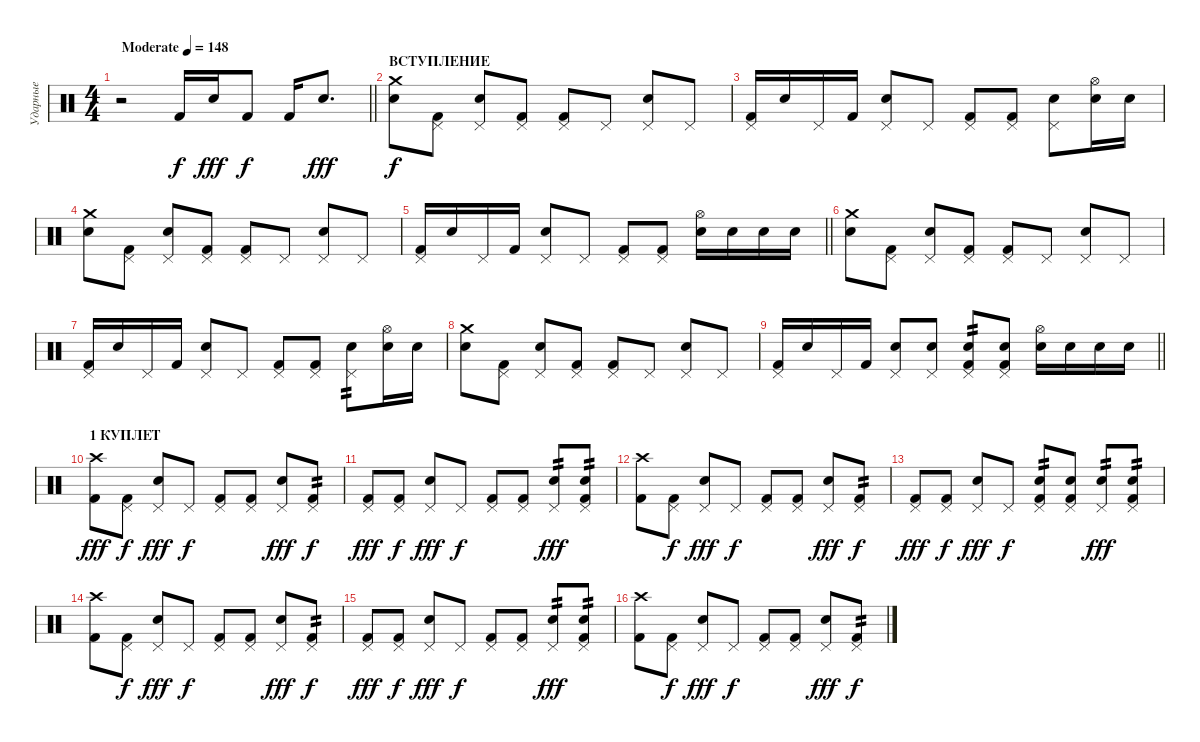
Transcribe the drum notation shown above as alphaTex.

\track ("Ударные" "Ударные") {instrument percussion}
\staff
\articulation defaults
\ts (4 4)
\tempo (148 "Moderate")
\clef neutral
\barLineRight lightlight
\ks c
r.2{dy f} "Kick (hit) 2".16 "Electric Snare (hit)".16{dy fff} "Kick (hit) 2".8{dy f} "Kick (hit) 2".16 "Electric Snare (hit)".8{d dy fff} |
\section ("" "ВСТУПЛЕНИЕ")
("Crash medium (hit)" "Electric Snare (hit)").8{dy f} ("Pedal Hi-Hat (hit)" "Kick (hit) 2").8 ("Pedal Hi-Hat (hit)" "Electric Snare (hit)").8 ("Pedal Hi-Hat (hit)" "Kick (hit) 2").8 ("Pedal Hi-Hat (hit)" "Kick (hit) 2").8 "Pedal Hi-Hat (hit)".8 ("Pedal Hi-Hat (hit)" "Electric Snare (hit)").8 "Pedal Hi-Hat (hit)".8 |
("Pedal Hi-Hat (hit)" "Kick (hit) 2").16 "Electric Snare (hit)".16 "Pedal Hi-Hat (hit)".16 "Kick (hit) 2".16 ("Pedal Hi-Hat (hit)" "Electric Snare (hit)").8 "Pedal Hi-Hat (hit)".8 ("Pedal Hi-Hat (hit)" "Kick (hit) 2").8 ("Pedal Hi-Hat (hit)" "Kick (hit) 2").8 ("Pedal Hi-Hat (hit)" "Electric Snare (hit)").8 ("Hi-Hat (open)" "Electric Snare (hit)").16 "Electric Snare (hit)".16 |
("Crash medium (hit)" "Electric Snare (hit)").8 ("Pedal Hi-Hat (hit)" "Kick (hit) 2").8 ("Pedal Hi-Hat (hit)" "Electric Snare (hit)").8 ("Pedal Hi-Hat (hit)" "Kick (hit) 2").8 ("Pedal Hi-Hat (hit)" "Kick (hit) 2").8 "Pedal Hi-Hat (hit)".8 ("Pedal Hi-Hat (hit)" "Electric Snare (hit)").8 "Pedal Hi-Hat (hit)".8 |
\barLineRight lightlight
("Pedal Hi-Hat (hit)" "Kick (hit) 2").16 "Electric Snare (hit)".16 "Pedal Hi-Hat (hit)".16 "Kick (hit) 2".16 ("Pedal Hi-Hat (hit)" "Electric Snare (hit)").8 "Pedal Hi-Hat (hit)".8 ("Pedal Hi-Hat (hit)" "Kick (hit) 2").8 ("Pedal Hi-Hat (hit)" "Kick (hit) 2").8 ("Hi-Hat (open)" "Electric Snare (hit)").16 "Electric Snare (hit)".16 "Electric Snare (hit)".16 "Electric Snare (hit)".16 |
\section ("" "")
("Crash medium (hit)" "Electric Snare (hit)").8 ("Pedal Hi-Hat (hit)" "Kick (hit) 2").8 ("Pedal Hi-Hat (hit)" "Electric Snare (hit)").8 ("Pedal Hi-Hat (hit)" "Kick (hit) 2").8 ("Pedal Hi-Hat (hit)" "Kick (hit) 2").8 "Pedal Hi-Hat (hit)".8 ("Pedal Hi-Hat (hit)" "Electric Snare (hit)").8 "Pedal Hi-Hat (hit)".8 |
("Pedal Hi-Hat (hit)" "Kick (hit) 2").16 "Electric Snare (hit)".16 "Pedal Hi-Hat (hit)".16 "Kick (hit) 2".16 ("Pedal Hi-Hat (hit)" "Electric Snare (hit)").8 "Pedal Hi-Hat (hit)".8 ("Pedal Hi-Hat (hit)" "Kick (hit) 2").8 ("Pedal Hi-Hat (hit)" "Kick (hit) 2").8 ("Pedal Hi-Hat (hit)" "Electric Snare (hit)").8{tp 2} ("Hi-Hat (open)" "Electric Snare (hit)").16 "Electric Snare (hit)".16 |
("Crash medium (hit)" "Electric Snare (hit)").8 ("Pedal Hi-Hat (hit)" "Kick (hit) 2").8 ("Pedal Hi-Hat (hit)" "Electric Snare (hit)").8 ("Pedal Hi-Hat (hit)" "Kick (hit) 2").8 ("Pedal Hi-Hat (hit)" "Kick (hit) 2").8 "Pedal Hi-Hat (hit)".8 ("Pedal Hi-Hat (hit)" "Electric Snare (hit)").8 "Pedal Hi-Hat (hit)".8 |
\barLineRight lightlight
("Pedal Hi-Hat (hit)" "Kick (hit) 2").16 "Electric Snare (hit)".16 "Pedal Hi-Hat (hit)".16 "Kick (hit) 2".16 ("Pedal Hi-Hat (hit)" "Electric Snare (hit)").8 ("Pedal Hi-Hat (hit)" "Electric Snare (hit)").8 ("Pedal Hi-Hat (hit)" "Electric Snare (hit)" "Kick (hit) 2").8{tp 2} ("Pedal Hi-Hat (hit)" "Electric Snare (hit)" "Kick (hit) 2").8 ("Hi-Hat (open)" "Electric Snare (hit)").16 "Electric Snare (hit)".16 "Electric Snare (hit)".16 "Electric Snare (hit)".16 |
\section ("" "1 КУПЛЕТ")
("Crash high (hit)" "Kick (hit) 2").8{dy fff} ("Pedal Hi-Hat (hit)" "Kick (hit) 2").8{dy f} ("Pedal Hi-Hat (hit)" "Electric Snare (hit)").8{dy fff} "Pedal Hi-Hat (hit)".8{dy f} ("Pedal Hi-Hat (hit)" "Kick (hit) 2").8 ("Pedal Hi-Hat (hit)" "Kick (hit) 2").8 ("Pedal Hi-Hat (hit)" "Electric Snare (hit)").8{dy fff} ("Pedal Hi-Hat (hit)" "Kick (hit) 2").8{tp 2 dy f} |
("Pedal Hi-Hat (hit)" "Kick (hit) 2").8{dy fff} ("Pedal Hi-Hat (hit)" "Kick (hit) 2").8{dy f} ("Pedal Hi-Hat (hit)" "Electric Snare (hit)").8{dy fff} "Pedal Hi-Hat (hit)".8{dy f} ("Pedal Hi-Hat (hit)" "Kick (hit) 2").8 ("Pedal Hi-Hat (hit)" "Kick (hit) 2").8 ("Pedal Hi-Hat (hit)" "Electric Snare (hit)").8{tp 2 dy fff} ("Pedal Hi-Hat (hit)" "Electric Snare (hit)" "Kick (hit) 2").8{tp 2} |
("Crash high (hit)" "Kick (hit) 2").8 ("Pedal Hi-Hat (hit)" "Kick (hit) 2").8{dy f} ("Pedal Hi-Hat (hit)" "Electric Snare (hit)").8{dy fff} "Pedal Hi-Hat (hit)".8{dy f} ("Pedal Hi-Hat (hit)" "Kick (hit) 2").8 ("Pedal Hi-Hat (hit)" "Kick (hit) 2").8 ("Pedal Hi-Hat (hit)" "Electric Snare (hit)").8{dy fff} ("Pedal Hi-Hat (hit)" "Kick (hit) 2").8{tp 2 dy f} |
("Pedal Hi-Hat (hit)" "Kick (hit) 2").8{dy fff} ("Pedal Hi-Hat (hit)" "Kick (hit) 2").8{dy f} ("Pedal Hi-Hat (hit)" "Electric Snare (hit)").8{dy fff} "Pedal Hi-Hat (hit)".8{dy f} ("Pedal Hi-Hat (hit)" "Electric Snare (hit)" "Kick (hit) 2").8{tp 2} ("Pedal Hi-Hat (hit)" "Electric Snare (hit)" "Kick (hit) 2").8 ("Pedal Hi-Hat (hit)" "Electric Snare (hit)").8{tp 2 dy fff} ("Pedal Hi-Hat (hit)" "Electric Snare (hit)" "Kick (hit) 2").8{tp 2} |
("Crash high (hit)" "Kick (hit) 2").8 ("Pedal Hi-Hat (hit)" "Kick (hit) 2").8{dy f} ("Pedal Hi-Hat (hit)" "Electric Snare (hit)").8{dy fff} "Pedal Hi-Hat (hit)".8{dy f} ("Pedal Hi-Hat (hit)" "Kick (hit) 2").8 ("Pedal Hi-Hat (hit)" "Kick (hit) 2").8 ("Pedal Hi-Hat (hit)" "Electric Snare (hit)").8{dy fff} ("Pedal Hi-Hat (hit)" "Kick (hit) 2").8{tp 2 dy f} |
("Pedal Hi-Hat (hit)" "Kick (hit) 2").8{dy fff} ("Pedal Hi-Hat (hit)" "Kick (hit) 2").8{dy f} ("Pedal Hi-Hat (hit)" "Electric Snare (hit)").8{dy fff} "Pedal Hi-Hat (hit)".8{dy f} ("Pedal Hi-Hat (hit)" "Kick (hit) 2").8 ("Pedal Hi-Hat (hit)" "Kick (hit) 2").8 ("Pedal Hi-Hat (hit)" "Electric Snare (hit)").8{tp 2 dy fff} ("Pedal Hi-Hat (hit)" "Electric Snare (hit)" "Kick (hit) 2").8{tp 2} |
("Crash high (hit)" "Kick (hit) 2").8 ("Pedal Hi-Hat (hit)" "Kick (hit) 2").8{dy f} ("Pedal Hi-Hat (hit)" "Electric Snare (hit)").8{dy fff} "Pedal Hi-Hat (hit)".8{dy f} ("Pedal Hi-Hat (hit)" "Kick (hit) 2").8 ("Pedal Hi-Hat (hit)" "Kick (hit) 2").8 ("Pedal Hi-Hat (hit)" "Electric Snare (hit)").8{dy fff} ("Pedal Hi-Hat (hit)" "Kick (hit) 2").8{tp 2 dy f}
